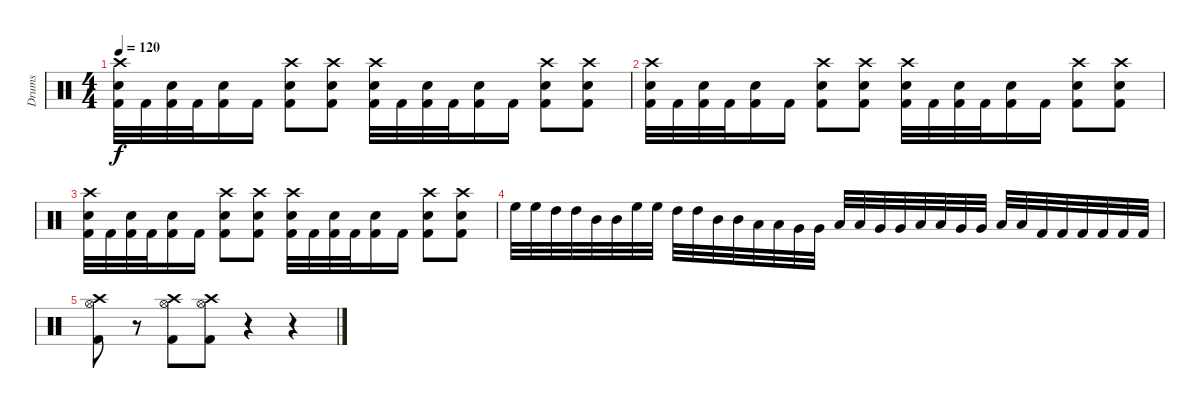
\track ("Drums" "Drums") {instrument percussion}
\staff {score}
\articulation defaults
\ts (4 4)
\tempo 120
\clef neutral
\ks c
("Crash high (hit)" "Snare (hit) 2" "Kick (hit) 2").32{dy f} "Kick (hit) 2".32 ("Snare (hit) 2" "Kick (hit) 2").32 "Kick (hit) 2".32 ("Snare (hit) 2" "Kick (hit) 2").16 "Kick (hit) 2".16 ("Crash high (hit)" "Snare (hit) 2" "Kick (hit) 2").8 ("Crash high (hit)" "Snare (hit) 2" "Kick (hit) 2").8 ("Crash high (hit)" "Snare (hit) 2" "Kick (hit) 2").32 "Kick (hit) 2".32 ("Snare (hit) 2" "Kick (hit) 2").32 "Kick (hit) 2".32 ("Snare (hit) 2" "Kick (hit) 2").16 "Kick (hit) 2".16 ("Crash high (hit)" "Snare (hit) 2" "Kick (hit) 2").8 ("Crash high (hit)" "Snare (hit) 2" "Kick (hit) 2").8 |
("Crash high (hit)" "Snare (hit) 2" "Kick (hit) 2").32 "Kick (hit) 2".32 ("Snare (hit) 2" "Kick (hit) 2").32 "Kick (hit) 2".32 ("Snare (hit) 2" "Kick (hit) 2").16 "Kick (hit) 2".16 ("Crash high (hit)" "Snare (hit) 2" "Kick (hit) 2").8 ("Crash high (hit)" "Snare (hit) 2" "Kick (hit) 2").8 ("Crash high (hit)" "Snare (hit) 2" "Kick (hit) 2").32 "Kick (hit) 2".32 ("Snare (hit) 2" "Kick (hit) 2").32 "Kick (hit) 2".32 ("Snare (hit) 2" "Kick (hit) 2").16 "Kick (hit) 2".16 ("Crash high (hit)" "Snare (hit) 2" "Kick (hit) 2").8 ("Crash high (hit)" "Snare (hit) 2" "Kick (hit) 2").8 |
("Crash high (hit)" "Snare (hit) 2" "Kick (hit) 2").32 "Kick (hit) 2".32 ("Snare (hit) 2" "Kick (hit) 2").32 "Kick (hit) 2".32 ("Snare (hit) 2" "Kick (hit) 2").16 "Kick (hit) 2".16 ("Crash high (hit)" "Snare (hit) 2" "Kick (hit) 2").8 ("Crash high (hit)" "Snare (hit) 2" "Kick (hit) 2").8 ("Crash high (hit)" "Snare (hit) 2" "Kick (hit) 2").32 "Kick (hit) 2".32 ("Snare (hit) 2" "Kick (hit) 2").32 "Kick (hit) 2".32 ("Snare (hit) 2" "Kick (hit) 2").16 "Kick (hit) 2".16 ("Crash high (hit)" "Snare (hit) 2" "Kick (hit) 2").8 ("Crash high (hit)" "Snare (hit) 2" "Kick (hit) 2").8 |
"High Floor Tom (hit)".32 "High Floor Tom (hit)".32 "High Tom (hit)".32 "High Tom (hit)".32 "Mid Tom (hit)".32 "Mid Tom (hit)".32 "High Floor Tom (hit)".32 "High Floor Tom (hit)".32 "High Tom (hit)".32 "High Tom (hit)".32 "Mid Tom (hit)".32 "Mid Tom (hit)".32 "Low Tom (hit)".32 "Low Tom (hit)".32 "Very Low Tom (hit)".32 "Very Low Tom (hit)".32 "Low Tom (hit)".32 "Low Tom (hit)".32 "Very Low Tom (hit)".32 "Very Low Tom (hit)".32 "Low Floor Tom (hit)".32 "Low Floor Tom (hit)".32 "Very Low Tom (hit)".32 "Very Low Tom (hit)".32 "Low Floor Tom (hit)".32 "Low Floor Tom (hit)".32 "Kick (hit) 2".32 "Kick (hit) 2".32 "Kick (hit) 2".32 "Kick (hit) 2".32 "Kick (hit) 2".32 "Kick (hit) 2".32 |
("Hi-Hat (open)" "Crash high (hit)" "Kick (hit) 2").8 r.8 ("Hi-Hat (open)" "Crash high (hit)" "Kick (hit) 2").8 ("Hi-Hat (open)" "Crash high (hit)" "Kick (hit) 2").8 r.4 r.4
